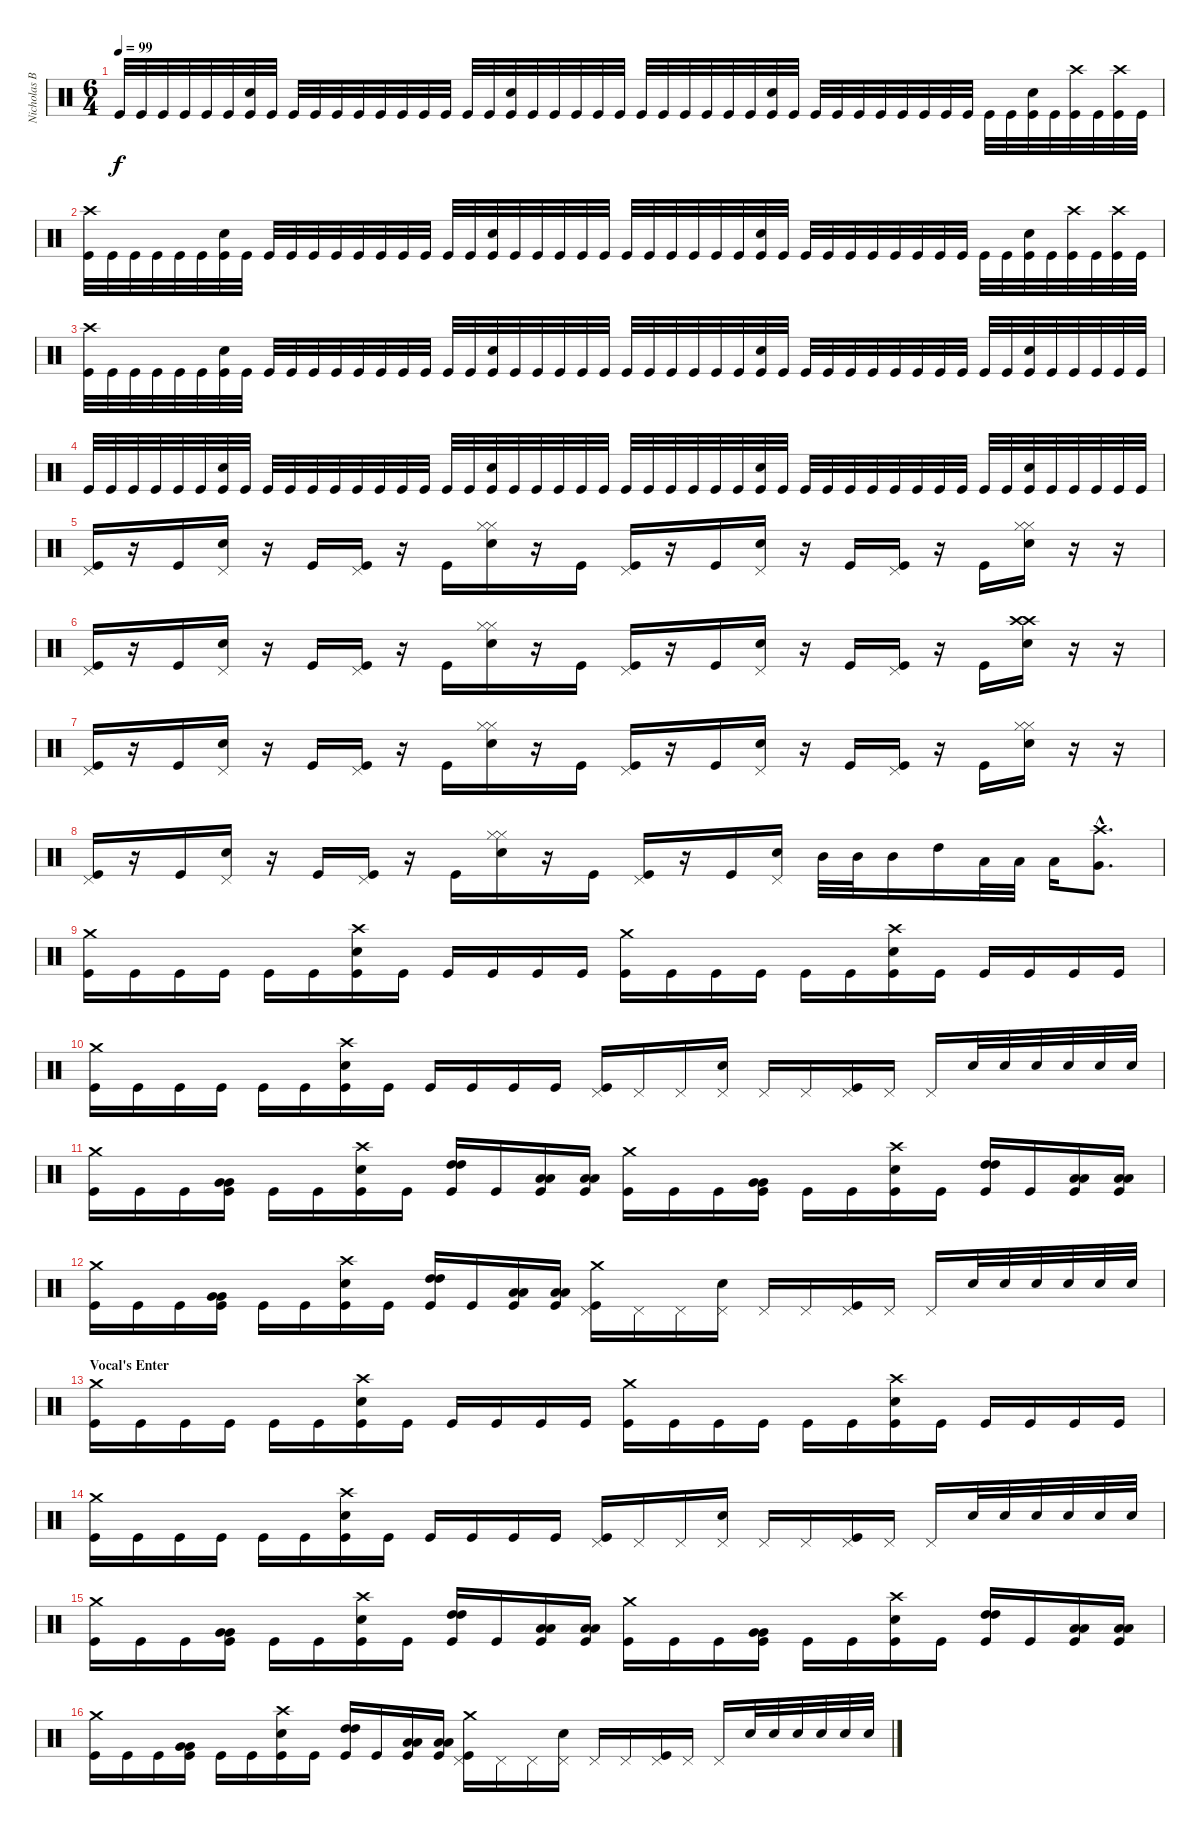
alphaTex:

\track ("Nicholas Barker" "Nicholas B") {instrument percussion}
\staff {score}
\articulation defaults
\ts (6 4)
\tempo 99
\clef neutral
\ks c "Kick (hit)".32{dy f} "Kick (hit)".32 "Kick (hit)".32 "Kick (hit)".32 "Kick (hit)".32 "Kick (hit)".32
("Snare (hit) 2" "Kick (hit)").32 "Kick (hit)".32 "Kick (hit)".32 "Kick (hit)".32 "Kick (hit)".32 "Kick (hit)".32 "Kick (hit)".32 "Kick (hit)".32 "Kick (hit)".32 "Kick (hit)".32 "Kick (hit)".32 "Kick (hit)".32 ("Snare (hit) 2" "Kick (hit)").32 "Kick (hit)".32 "Kick (hit)".32 "Kick (hit)".32 "Kick (hit)".32 "Kick (hit)".32 "Kick (hit)".32 "Kick (hit)".32 "Kick (hit)".32 "Kick (hit)".32 "Kick (hit)".32 "Kick (hit)".32 ("Snare (hit) 2" "Kick (hit)").32 "Kick (hit)".32 "Kick (hit)".32 "Kick (hit)".32 "Kick (hit)".32 "Kick (hit)".32 "Kick (hit)".32 "Kick (hit)".32 "Kick (hit)".32 "Kick (hit)".32 "Kick (hit)".32 "Kick (hit)".32 ("Snare (hit) 2" "Kick (hit)").32 "Kick (hit)".32 ("Crash high (hit)" "Kick (hit)").32 "Kick (hit)".32 ("Crash high (hit)" "Kick (hit)").32 "Kick (hit)".32 |
("Crash high (hit)" "Kick (hit)").32 "Kick (hit)".32 "Kick (hit)".32 "Kick (hit)".32 "Kick (hit)".32 "Kick (hit)".32 ("Snare (hit) 2" "Kick (hit)").32 "Kick (hit)".32 "Kick (hit)".32 "Kick (hit)".32 "Kick (hit)".32 "Kick (hit)".32 "Kick (hit)".32 "Kick (hit)".32 "Kick (hit)".32 "Kick (hit)".32 "Kick (hit)".32 "Kick (hit)".32 ("Snare (hit) 2" "Kick (hit)").32 "Kick (hit)".32 "Kick (hit)".32 "Kick (hit)".32 "Kick (hit)".32 "Kick (hit)".32 "Kick (hit)".32 "Kick (hit)".32 "Kick (hit)".32 "Kick (hit)".32 "Kick (hit)".32 "Kick (hit)".32 ("Snare (hit) 2" "Kick (hit)").32 "Kick (hit)".32 "Kick (hit)".32 "Kick (hit)".32 "Kick (hit)".32 "Kick (hit)".32 "Kick (hit)".32 "Kick (hit)".32 "Kick (hit)".32 "Kick (hit)".32 "Kick (hit)".32 "Kick (hit)".32 ("Snare (hit) 2" "Kick (hit)").32 "Kick (hit)".32 ("Crash high (hit)" "Kick (hit)").32 "Kick (hit)".32 ("Crash high (hit)" "Kick (hit)").32 "Kick (hit)".32 |
("Crash high (hit)" "Kick (hit)").32 "Kick (hit)".32 "Kick (hit)".32 "Kick (hit)".32 "Kick (hit)".32 "Kick (hit)".32 ("Snare (hit) 2" "Kick (hit)").32 "Kick (hit)".32 "Kick (hit)".32 "Kick (hit)".32 "Kick (hit)".32 "Kick (hit)".32 "Kick (hit)".32 "Kick (hit)".32 "Kick (hit)".32 "Kick (hit)".32 "Kick (hit)".32 "Kick (hit)".32 ("Snare (hit) 2" "Kick (hit)").32 "Kick (hit)".32 "Kick (hit)".32 "Kick (hit)".32 "Kick (hit)".32 "Kick (hit)".32 "Kick (hit)".32 "Kick (hit)".32 "Kick (hit)".32 "Kick (hit)".32 "Kick (hit)".32 "Kick (hit)".32 ("Snare (hit) 2" "Kick (hit)").32 "Kick (hit)".32 "Kick (hit)".32 "Kick (hit)".32 "Kick (hit)".32 "Kick (hit)".32 "Kick (hit)".32 "Kick (hit)".32 "Kick (hit)".32 "Kick (hit)".32 "Kick (hit)".32 "Kick (hit)".32 ("Snare (hit) 2" "Kick (hit)").32 "Kick (hit)".32 "Kick (hit)".32 "Kick (hit)".32 "Kick (hit)".32 "Kick (hit)".32 |
"Kick (hit)".32 "Kick (hit)".32 "Kick (hit)".32 "Kick (hit)".32 "Kick (hit)".32 "Kick (hit)".32 ("Snare (hit) 2" "Kick (hit)").32 "Kick (hit)".32 "Kick (hit)".32 "Kick (hit)".32 "Kick (hit)".32 "Kick (hit)".32 "Kick (hit)".32 "Kick (hit)".32 "Kick (hit)".32 "Kick (hit)".32 "Kick (hit)".32 "Kick (hit)".32 ("Snare (hit) 2" "Kick (hit)").32 "Kick (hit)".32 "Kick (hit)".32 "Kick (hit)".32 "Kick (hit)".32 "Kick (hit)".32 "Kick (hit)".32 "Kick (hit)".32 "Kick (hit)".32 "Kick (hit)".32 "Kick (hit)".32 "Kick (hit)".32 ("Snare (hit) 2" "Kick (hit)").32 "Kick (hit)".32 "Kick (hit)".32 "Kick (hit)".32 "Kick (hit)".32 "Kick (hit)".32 "Kick (hit)".32 "Kick (hit)".32 "Kick (hit)".32 "Kick (hit)".32 "Kick (hit)".32 "Kick (hit)".32 ("Snare (hit) 2" "Kick (hit)").32 "Kick (hit)".32 "Kick (hit)".32 "Kick (hit)".32 "Kick (hit)".32 "Kick (hit)".32 |
("Pedal Hi-Hat (hit)" "Kick (hit)").16 r.16 "Kick (hit)".16 ("Pedal Hi-Hat (hit)" "Snare (hit) 2").16 r.16 "Kick (hit)".16 ("Pedal Hi-Hat (hit)" "Kick (hit)").16 r.16 "Kick (hit)".16 ("Hi-Hat (closed)" "Hi-Hat (closed)" "Snare (hit) 2").16 r.16 "Kick (hit)".16 ("Pedal Hi-Hat (hit)" "Kick (hit)").16 r.16 "Kick (hit)".16 ("Pedal Hi-Hat (hit)" "Snare (hit) 2").16 r.16 "Kick (hit)".16 ("Pedal Hi-Hat (hit)" "Kick (hit)").16 r.16 "Kick (hit)".16 ("Hi-Hat (closed)" "Hi-Hat (closed)" "Snare (hit) 2").16 r.16 r.16 |
("Pedal Hi-Hat (hit)" "Kick (hit)").16 r.16 "Kick (hit)".16 ("Pedal Hi-Hat (hit)" "Snare (hit) 2").16 r.16 "Kick (hit)".16 ("Pedal Hi-Hat (hit)" "Kick (hit)").16 r.16 "Kick (hit)".16 ("Hi-Hat (closed)" "Hi-Hat (closed)" "Snare (hit) 2").16 r.16 "Kick (hit)".16 ("Pedal Hi-Hat (hit)" "Kick (hit)").16 r.16 "Kick (hit)".16 ("Pedal Hi-Hat (hit)" "Snare (hit) 2").16 r.16 "Kick (hit)".16 ("Pedal Hi-Hat (hit)" "Kick (hit)").16 r.16 "Kick (hit)".16 ("Crash high (hit)" "Crash high (hit)" "Snare (hit) 2").16 r.16 r.16 |
("Pedal Hi-Hat (hit)" "Kick (hit)").16 r.16 "Kick (hit)".16 ("Pedal Hi-Hat (hit)" "Snare (hit) 2").16 r.16 "Kick (hit)".16 ("Pedal Hi-Hat (hit)" "Kick (hit)").16 r.16 "Kick (hit)".16 ("Hi-Hat (closed)" "Hi-Hat (closed)" "Snare (hit) 2").16 r.16 "Kick (hit)".16 ("Pedal Hi-Hat (hit)" "Kick (hit)").16 r.16 "Kick (hit)".16 ("Pedal Hi-Hat (hit)" "Snare (hit) 2").16 r.16 "Kick (hit)".16 ("Pedal Hi-Hat (hit)" "Kick (hit)").16 r.16 "Kick (hit)".16 ("Hi-Hat (closed)" "Hi-Hat (closed)" "Snare (hit) 2").16 r.16 r.16 |
("Pedal Hi-Hat (hit)" "Kick (hit)").16 r.16 "Kick (hit)".16 ("Pedal Hi-Hat (hit)" "Snare (hit) 2").16 r.16 "Kick (hit)".16 ("Pedal Hi-Hat (hit)" "Kick (hit)").16 r.16 "Kick (hit)".16 ("Hi-Hat (closed)" "Hi-Hat (closed)" "Snare (hit) 2").16 r.16 "Kick (hit)".16 ("Pedal Hi-Hat (hit)" "Kick (hit)").16 r.16 "Kick (hit)".16 ("Pedal Hi-Hat (hit)" "Snare (hit) 2").16 "Mid Tom (hit)".32 "Mid Tom (hit)".32 "Mid Tom (hit)".16 "High Tom (hit)".16 "Low Tom (hit)".32 "Low Tom (hit)".32 "Low Tom (hit)".16 ("Crash high (hit)"{hac} "Very Low Tom (hit)"{hac}).8{d} |
("Crash medium (hit)" "Kick (hit)").16 "Kick (hit)".16 "Kick (hit)".16 "Kick (hit)".16 "Kick (hit)".16 "Kick (hit)".16 ("Crash high (hit)" "Snare (hit) 2" "Kick (hit)").16 "Kick (hit)".16 "Kick (hit)".16 "Kick (hit)".16 "Kick (hit)".16 "Kick (hit)".16 ("Crash medium (hit)" "Kick (hit)").16 "Kick (hit)".16 "Kick (hit)".16 "Kick (hit)".16 "Kick (hit)".16 "Kick (hit)".16 ("Crash high (hit)" "Snare (hit) 2" "Kick (hit)").16 "Kick (hit)".16 "Kick (hit)".16 "Kick (hit)".16 "Kick (hit)".16 "Kick (hit)".16 |
("Crash medium (hit)" "Kick (hit)").16 "Kick (hit)".16 "Kick (hit)".16 "Kick (hit)".16 "Kick (hit)".16 "Kick (hit)".16 ("Crash high (hit)" "Snare (hit) 2" "Kick (hit)").16 "Kick (hit)".16 "Kick (hit)".16 "Kick (hit)".16 "Kick (hit)".16 "Kick (hit)".16 ("Pedal Hi-Hat (hit)" "Kick (hit)").16 "Pedal Hi-Hat (hit)".16 "Pedal Hi-Hat (hit)".16 ("Pedal Hi-Hat (hit)" "Snare (hit) 2").16 "Pedal Hi-Hat (hit)".16 "Pedal Hi-Hat (hit)".16 ("Pedal Hi-Hat (hit)" "Kick (hit)").16 "Pedal Hi-Hat (hit)".16 "Pedal Hi-Hat (hit)".16 "Snare (hit) 2".32 "Snare (hit) 2".32 "Snare (hit) 2".32 "Snare (hit) 2".32 "Snare (hit) 2".32 "Snare (hit) 2".32 |
("Crash medium (hit)" "Kick (hit)").16 "Kick (hit)".16 "Kick (hit)".16 ("Very Low Tom (hit)" "Very Low Tom (hit)" "Kick (hit)").16 "Kick (hit)".16 "Kick (hit)".16 ("Crash high (hit)" "Snare (hit) 2" "Kick (hit)").16 "Kick (hit)".16 ("High Tom (hit)" "High Tom (hit)" "Kick (hit)").16 "Kick (hit)".16 ("Low Tom (hit)" "Low Tom (hit)" "Kick (hit)").16 ("Low Tom (hit)" "Low Tom (hit)" "Kick (hit)").16 ("Crash medium (hit)" "Kick (hit)").16 "Kick (hit)".16 "Kick (hit)".16 ("Very Low Tom (hit)" "Very Low Tom (hit)" "Kick (hit)").16 "Kick (hit)".16 "Kick (hit)".16 ("Crash high (hit)" "Snare (hit) 2" "Kick (hit)").16 "Kick (hit)".16 ("High Tom (hit)" "High Tom (hit)" "Kick (hit)").16 "Kick (hit)".16 ("Low Tom (hit)" "Low Tom (hit)" "Kick (hit)").16 ("Low Tom (hit)" "Low Tom (hit)" "Kick (hit)").16 |
("Crash medium (hit)" "Kick (hit)").16 "Kick (hit)".16 "Kick (hit)".16 ("Very Low Tom (hit)" "Very Low Tom (hit)" "Kick (hit)").16 "Kick (hit)".16 "Kick (hit)".16 ("Crash high (hit)" "Snare (hit) 2" "Kick (hit)").16 "Kick (hit)".16 ("High Tom (hit)" "High Tom (hit)" "Kick (hit)").16 "Kick (hit)".16 ("Low Tom (hit)" "Low Tom (hit)" "Kick (hit)").16 ("Low Tom (hit)" "Low Tom (hit)" "Kick (hit)").16 ("Crash medium (hit)" "Pedal Hi-Hat (hit)" "Kick (hit)").16 "Pedal Hi-Hat (hit)".16 "Pedal Hi-Hat (hit)".16 ("Pedal Hi-Hat (hit)" "Snare (hit) 2").16 "Pedal Hi-Hat (hit)".16 "Pedal Hi-Hat (hit)".16 ("Pedal Hi-Hat (hit)" "Kick (hit)").16 "Pedal Hi-Hat (hit)".16 "Pedal Hi-Hat (hit)".16 "Snare (hit) 2".32 "Snare (hit) 2".32 "Snare (hit) 2".32 "Snare (hit) 2".32 "Snare (hit) 2".32 "Snare (hit) 2".32 |
\section ("" "Vocal's Enter")
("Crash medium (hit)" "Kick (hit)").16 "Kick (hit)".16 "Kick (hit)".16 "Kick (hit)".16 "Kick (hit)".16 "Kick (hit)".16 ("Crash high (hit)" "Snare (hit) 2" "Kick (hit)").16 "Kick (hit)".16 "Kick (hit)".16 "Kick (hit)".16 "Kick (hit)".16 "Kick (hit)".16 ("Crash medium (hit)" "Kick (hit)").16 "Kick (hit)".16 "Kick (hit)".16 "Kick (hit)".16 "Kick (hit)".16 "Kick (hit)".16 ("Crash high (hit)" "Snare (hit) 2" "Kick (hit)").16 "Kick (hit)".16 "Kick (hit)".16 "Kick (hit)".16 "Kick (hit)".16 "Kick (hit)".16 |
("Crash medium (hit)" "Kick (hit)").16 "Kick (hit)".16 "Kick (hit)".16 "Kick (hit)".16 "Kick (hit)".16 "Kick (hit)".16 ("Crash high (hit)" "Snare (hit) 2" "Kick (hit)").16 "Kick (hit)".16 "Kick (hit)".16 "Kick (hit)".16 "Kick (hit)".16 "Kick (hit)".16 ("Pedal Hi-Hat (hit)" "Kick (hit)").16 "Pedal Hi-Hat (hit)".16 "Pedal Hi-Hat (hit)".16 ("Pedal Hi-Hat (hit)" "Snare (hit) 2").16 "Pedal Hi-Hat (hit)".16 "Pedal Hi-Hat (hit)".16 ("Pedal Hi-Hat (hit)" "Kick (hit)").16 "Pedal Hi-Hat (hit)".16 "Pedal Hi-Hat (hit)".16 "Snare (hit) 2".32 "Snare (hit) 2".32 "Snare (hit) 2".32 "Snare (hit) 2".32 "Snare (hit) 2".32 "Snare (hit) 2".32 |
("Crash medium (hit)" "Kick (hit)").16 "Kick (hit)".16 "Kick (hit)".16 ("Very Low Tom (hit)" "Very Low Tom (hit)" "Kick (hit)").16 "Kick (hit)".16 "Kick (hit)".16 ("Crash high (hit)" "Snare (hit) 2" "Kick (hit)").16 "Kick (hit)".16 ("High Tom (hit)" "High Tom (hit)" "Kick (hit)").16 "Kick (hit)".16 ("Low Tom (hit)" "Low Tom (hit)" "Kick (hit)").16 ("Low Tom (hit)" "Low Tom (hit)" "Kick (hit)").16 ("Crash medium (hit)" "Kick (hit)").16 "Kick (hit)".16 "Kick (hit)".16 ("Very Low Tom (hit)" "Very Low Tom (hit)" "Kick (hit)").16 "Kick (hit)".16 "Kick (hit)".16 ("Crash high (hit)" "Snare (hit) 2" "Kick (hit)").16 "Kick (hit)".16 ("High Tom (hit)" "High Tom (hit)" "Kick (hit)").16 "Kick (hit)".16 ("Low Tom (hit)" "Low Tom (hit)" "Kick (hit)").16 ("Low Tom (hit)" "Low Tom (hit)" "Kick (hit)").16 |
("Crash medium (hit)" "Kick (hit)").16 "Kick (hit)".16 "Kick (hit)".16 ("Very Low Tom (hit)" "Very Low Tom (hit)" "Kick (hit)").16 "Kick (hit)".16 "Kick (hit)".16 ("Crash high (hit)" "Snare (hit) 2" "Kick (hit)").16 "Kick (hit)".16 ("High Tom (hit)" "High Tom (hit)" "Kick (hit)").16 "Kick (hit)".16 ("Low Tom (hit)" "Low Tom (hit)" "Kick (hit)").16 ("Low Tom (hit)" "Low Tom (hit)" "Kick (hit)").16 ("Crash medium (hit)" "Pedal Hi-Hat (hit)" "Kick (hit)").16 "Pedal Hi-Hat (hit)".16 "Pedal Hi-Hat (hit)".16 ("Pedal Hi-Hat (hit)" "Snare (hit) 2").16 "Pedal Hi-Hat (hit)".16 "Pedal Hi-Hat (hit)".16 ("Pedal Hi-Hat (hit)" "Kick (hit)").16 "Pedal Hi-Hat (hit)".16 "Pedal Hi-Hat (hit)".16 "Snare (hit) 2".32 "Snare (hit) 2".32 "Snare (hit) 2".32 "Snare (hit) 2".32 "Snare (hit) 2".32 "Snare (hit) 2".32
